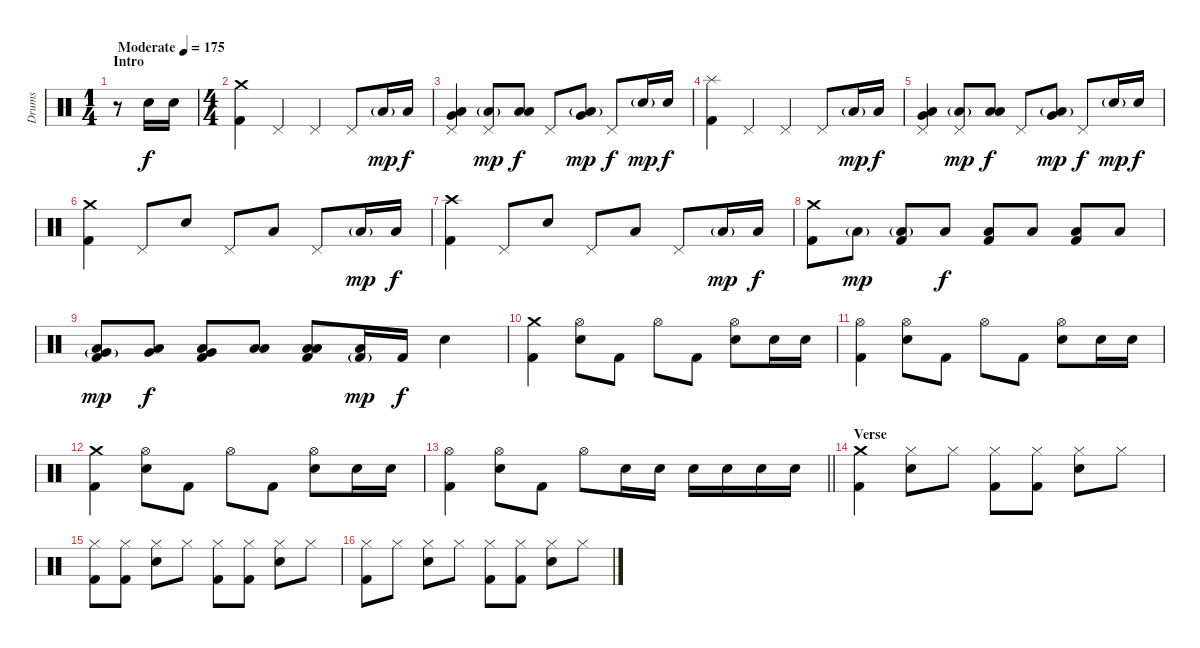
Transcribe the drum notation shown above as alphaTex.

\track ("Drums" "Drums") {instrument percussion}
\staff {score}
\articulation defaults
\ts (1 4)
\section ("" "Intro")
\tempo (175 "Moderate")
\clef neutral
\ks c
r.8{dy f} "Electric Snare (hit)".16 "Electric Snare (hit)".16 |
\ts (4 4)
("Crash medium (hit)" "Kick (hit) 2").4 "Pedal Hi-Hat (hit)".4 "Pedal Hi-Hat (hit)".4 "Pedal Hi-Hat (hit)".8 "Low Floor Tom (hit)"{g}.16{dy mp} "Low Floor Tom (hit)".16{dy f} |
("Pedal Hi-Hat (hit)" "Very Low Tom (hit)" "Low Floor Tom (hit)").4 ("Pedal Hi-Hat (hit)" "Low Floor Tom (hit)"{g}).8{dy mp} ("Low Tom (hit)" "Low Floor Tom (hit)").8{dy f} "Pedal Hi-Hat (hit)".8 ("Very Low Tom (hit)" "Low Floor Tom (hit)"{g}).8{dy mp} "Pedal Hi-Hat (hit)".8{dy f} "Electric Snare (hit)"{g}.16{dy mp} "Electric Snare (hit)".16{dy f} |
("Splash (hit)" "Kick (hit) 2").4 "Pedal Hi-Hat (hit)".4 "Pedal Hi-Hat (hit)".4 "Pedal Hi-Hat (hit)".8 "Low Floor Tom (hit)"{g}.16{dy mp} "Low Floor Tom (hit)".16{dy f} |
("Pedal Hi-Hat (hit)" "Very Low Tom (hit)" "Low Floor Tom (hit)").4 ("Pedal Hi-Hat (hit)" "Low Floor Tom (hit)"{g}).8{dy mp} ("Low Tom (hit)" "Low Floor Tom (hit)").8{dy f} "Pedal Hi-Hat (hit)".8 ("Very Low Tom (hit)" "Low Floor Tom (hit)"{g}).8{dy mp} "Pedal Hi-Hat (hit)".8{dy f} "Electric Snare (hit)"{g}.16{dy mp} "Electric Snare (hit)".16{dy f} |
("Crash medium (hit)" "Kick (hit) 2").4 "Pedal Hi-Hat (hit)".8 "Electric Snare (hit)".8 "Pedal Hi-Hat (hit)".8 "Low Tom (hit)".8 "Pedal Hi-Hat (hit)".8 "Low Floor Tom (hit)"{g}.16{dy mp} "Low Floor Tom (hit)".16{dy f} |
("Crash high (hit)" "Kick (hit) 2").4 "Pedal Hi-Hat (hit)".8 "Electric Snare (hit)".8 "Pedal Hi-Hat (hit)".8 "Low Tom (hit)".8 "Pedal Hi-Hat (hit)".8 "Low Floor Tom (hit)"{g}.16{dy mp} "Low Floor Tom (hit)".16{dy f} |
("Crash medium (hit)" "Kick (hit) 2").8 "Low Floor Tom (hit)"{g}.8{dy mp} ("Low Floor Tom (hit)"{g} "Kick (hit) 2").8 "Low Floor Tom (hit)".8{dy f} ("Low Floor Tom (hit)" "Kick (hit) 2").8 "Low Floor Tom (hit)".8 ("Low Floor Tom (hit)" "Kick (hit) 2").8 "Low Floor Tom (hit)".8 |
("Very Low Tom (hit)"{g} "Low Floor Tom (hit)" "Kick (hit) 2").8{dy mp} ("Very Low Tom (hit)" "Low Floor Tom (hit)").8{dy f} ("Very Low Tom (hit)" "Low Floor Tom (hit)" "Kick (hit) 2").8 ("Low Tom (hit)" "Low Floor Tom (hit)").8 ("Low Tom (hit)" "Low Floor Tom (hit)" "Kick (hit) 2").8 ("Low Floor Tom (hit)" "Kick (hit) 2"{g}).16{dy mp} "Kick (hit) 2".16{dy f} "Electric Snare (hit)".4 |
("Crash medium (hit)" "Kick (hit) 2").4 ("Hi-Hat (open)" "Electric Snare (hit)").8 "Kick (hit) 2".8 "Hi-Hat (open)".8 "Kick (hit) 2".8 ("Hi-Hat (open)" "Electric Snare (hit)").8 "Electric Snare (hit)".16 "Electric Snare (hit)".16 |
("Hi-Hat (open)" "Kick (hit) 2").4 ("Hi-Hat (open)" "Electric Snare (hit)").8 "Kick (hit) 2".8 "Hi-Hat (open)".8 "Kick (hit) 2".8 ("Hi-Hat (open)" "Electric Snare (hit)").8 "Electric Snare (hit)".16 "Electric Snare (hit)".16 |
("Crash medium (hit)" "Kick (hit) 2").4 ("Hi-Hat (open)" "Electric Snare (hit)").8 "Kick (hit) 2".8 "Hi-Hat (open)".8 "Kick (hit) 2".8 ("Hi-Hat (open)" "Electric Snare (hit)").8 "Electric Snare (hit)".16 "Electric Snare (hit)".16 |
\barLineRight lightlight
("Hi-Hat (open)" "Kick (hit) 2").4 ("Hi-Hat (open)" "Electric Snare (hit)").8 "Kick (hit) 2".8 "Hi-Hat (open)".8 "Electric Snare (hit)".16 "Electric Snare (hit)".16 "Electric Snare (hit)".16 "Electric Snare (hit)".16 "Electric Snare (hit)".16 "Electric Snare (hit)".16 |
\section ("" "Verse")
("Crash medium (hit)" "Kick (hit) 2").4 ("Hi-Hat (closed)" "Electric Snare (hit)").8 "Hi-Hat (closed)".8 ("Hi-Hat (closed)" "Kick (hit) 2").8 ("Hi-Hat (closed)" "Kick (hit) 2").8 ("Hi-Hat (closed)" "Electric Snare (hit)").8 "Hi-Hat (closed)".8 |
("Hi-Hat (closed)" "Kick (hit) 2").8 ("Hi-Hat (closed)" "Kick (hit) 2").8 ("Hi-Hat (closed)" "Electric Snare (hit)").8 "Hi-Hat (closed)".8 ("Hi-Hat (closed)" "Kick (hit) 2").8 ("Hi-Hat (closed)" "Kick (hit) 2").8 ("Hi-Hat (closed)" "Electric Snare (hit)").8 "Hi-Hat (closed)".8 |
("Hi-Hat (closed)" "Kick (hit) 2").8 "Hi-Hat (closed)".8 ("Hi-Hat (closed)" "Electric Snare (hit)").8 "Hi-Hat (closed)".8 ("Hi-Hat (closed)" "Kick (hit) 2").8 ("Hi-Hat (closed)" "Kick (hit) 2").8 ("Hi-Hat (closed)" "Electric Snare (hit)").8 "Hi-Hat (closed)".8
